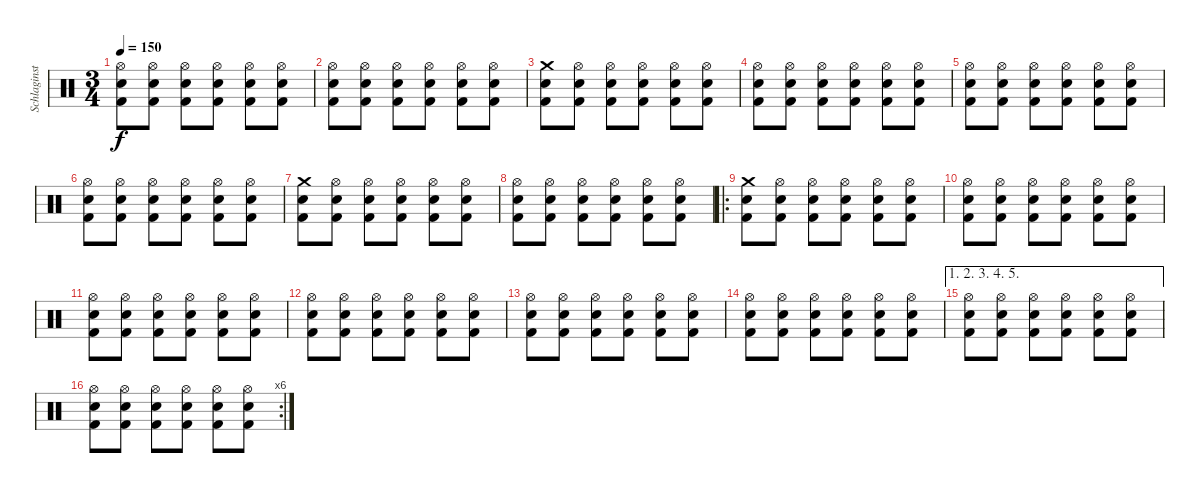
\track ("Schlaginstrumente - Auswahl" "Schlaginst") {instrument percussion}
\staff {score}
\articulation defaults
\ts (3 4)
\tempo 150
\clef neutral
\ks c
("Hi-Hat (open)" "Electric Snare (hit)" "Kick (hit) 2").8{dy f} ("Hi-Hat (open)" "Electric Snare (hit)" "Kick (hit) 2").8 ("Hi-Hat (open)" "Electric Snare (hit)" "Kick (hit) 2").8 ("Hi-Hat (open)" "Electric Snare (hit)" "Kick (hit) 2").8 ("Hi-Hat (open)" "Electric Snare (hit)" "Kick (hit) 2").8 ("Hi-Hat (open)" "Electric Snare (hit)" "Kick (hit) 2").8 |
("Hi-Hat (open)" "Electric Snare (hit)" "Kick (hit) 2").8 ("Hi-Hat (open)" "Electric Snare (hit)" "Kick (hit) 2").8 ("Hi-Hat (open)" "Electric Snare (hit)" "Kick (hit) 2").8 ("Hi-Hat (open)" "Electric Snare (hit)" "Kick (hit) 2").8 ("Hi-Hat (open)" "Electric Snare (hit)" "Kick (hit) 2").8 ("Hi-Hat (open)" "Electric Snare (hit)" "Kick (hit) 2").8 |
("Crash medium (hit)" "Electric Snare (hit)" "Kick (hit) 2").8 ("Hi-Hat (open)" "Electric Snare (hit)" "Kick (hit) 2").8 ("Hi-Hat (open)" "Electric Snare (hit)" "Kick (hit) 2").8 ("Hi-Hat (open)" "Electric Snare (hit)" "Kick (hit) 2").8 ("Hi-Hat (open)" "Electric Snare (hit)" "Kick (hit) 2").8 ("Hi-Hat (open)" "Electric Snare (hit)" "Kick (hit) 2").8 |
("Hi-Hat (open)" "Electric Snare (hit)" "Kick (hit) 2").8 ("Hi-Hat (open)" "Electric Snare (hit)" "Kick (hit) 2").8 ("Hi-Hat (open)" "Electric Snare (hit)" "Kick (hit) 2").8 ("Hi-Hat (open)" "Electric Snare (hit)" "Kick (hit) 2").8 ("Hi-Hat (open)" "Electric Snare (hit)" "Kick (hit) 2").8 ("Hi-Hat (open)" "Electric Snare (hit)" "Kick (hit) 2").8 |
("Hi-Hat (open)" "Electric Snare (hit)" "Kick (hit) 2").8 ("Hi-Hat (open)" "Electric Snare (hit)" "Kick (hit) 2").8 ("Hi-Hat (open)" "Electric Snare (hit)" "Kick (hit) 2").8 ("Hi-Hat (open)" "Electric Snare (hit)" "Kick (hit) 2").8 ("Hi-Hat (open)" "Electric Snare (hit)" "Kick (hit) 2").8 ("Hi-Hat (open)" "Electric Snare (hit)" "Kick (hit) 2").8 |
("Hi-Hat (open)" "Electric Snare (hit)" "Kick (hit) 2").8 ("Hi-Hat (open)" "Electric Snare (hit)" "Kick (hit) 2").8 ("Hi-Hat (open)" "Electric Snare (hit)" "Kick (hit) 2").8 ("Hi-Hat (open)" "Electric Snare (hit)" "Kick (hit) 2").8 ("Hi-Hat (open)" "Electric Snare (hit)" "Kick (hit) 2").8 ("Hi-Hat (open)" "Electric Snare (hit)" "Kick (hit) 2").8 |
("Crash medium (hit)" "Electric Snare (hit)" "Kick (hit) 2").8 ("Hi-Hat (open)" "Electric Snare (hit)" "Kick (hit) 2").8 ("Hi-Hat (open)" "Electric Snare (hit)" "Kick (hit) 2").8 ("Hi-Hat (open)" "Electric Snare (hit)" "Kick (hit) 2").8 ("Hi-Hat (open)" "Electric Snare (hit)" "Kick (hit) 2").8 ("Hi-Hat (open)" "Electric Snare (hit)" "Kick (hit) 2").8 |
("Hi-Hat (open)" "Electric Snare (hit)" "Kick (hit) 2").8 ("Hi-Hat (open)" "Electric Snare (hit)" "Kick (hit) 2").8 ("Hi-Hat (open)" "Electric Snare (hit)" "Kick (hit) 2").8 ("Hi-Hat (open)" "Electric Snare (hit)" "Kick (hit) 2").8 ("Hi-Hat (open)" "Electric Snare (hit)" "Kick (hit) 2").8 ("Hi-Hat (open)" "Electric Snare (hit)" "Kick (hit) 2").8 |
\ro
("Crash medium (hit)" "Electric Snare (hit)" "Kick (hit) 2").8 ("Hi-Hat (open)" "Electric Snare (hit)" "Kick (hit) 2").8 ("Hi-Hat (open)" "Electric Snare (hit)" "Kick (hit) 2").8 ("Hi-Hat (open)" "Electric Snare (hit)" "Kick (hit) 2").8 ("Hi-Hat (open)" "Electric Snare (hit)" "Kick (hit) 2").8 ("Hi-Hat (open)" "Electric Snare (hit)" "Kick (hit) 2").8 |
("Hi-Hat (open)" "Electric Snare (hit)" "Kick (hit) 2").8 ("Hi-Hat (open)" "Electric Snare (hit)" "Kick (hit) 2").8 ("Hi-Hat (open)" "Electric Snare (hit)" "Kick (hit) 2").8 ("Hi-Hat (open)" "Electric Snare (hit)" "Kick (hit) 2").8 ("Hi-Hat (open)" "Electric Snare (hit)" "Kick (hit) 2").8 ("Hi-Hat (open)" "Electric Snare (hit)" "Kick (hit) 2").8 |
("Hi-Hat (open)" "Electric Snare (hit)" "Kick (hit) 2").8 ("Hi-Hat (open)" "Electric Snare (hit)" "Kick (hit) 2").8 ("Hi-Hat (open)" "Electric Snare (hit)" "Kick (hit) 2").8 ("Hi-Hat (open)" "Electric Snare (hit)" "Kick (hit) 2").8 ("Hi-Hat (open)" "Electric Snare (hit)" "Kick (hit) 2").8 ("Hi-Hat (open)" "Electric Snare (hit)" "Kick (hit) 2").8 |
("Hi-Hat (open)" "Electric Snare (hit)" "Kick (hit) 2").8 ("Hi-Hat (open)" "Electric Snare (hit)" "Kick (hit) 2").8 ("Hi-Hat (open)" "Electric Snare (hit)" "Kick (hit) 2").8 ("Hi-Hat (open)" "Electric Snare (hit)" "Kick (hit) 2").8 ("Hi-Hat (open)" "Electric Snare (hit)" "Kick (hit) 2").8 ("Hi-Hat (open)" "Electric Snare (hit)" "Kick (hit) 2").8 |
("Hi-Hat (open)" "Electric Snare (hit)" "Kick (hit) 2").8 ("Hi-Hat (open)" "Electric Snare (hit)" "Kick (hit) 2").8 ("Hi-Hat (open)" "Electric Snare (hit)" "Kick (hit) 2").8 ("Hi-Hat (open)" "Electric Snare (hit)" "Kick (hit) 2").8 ("Hi-Hat (open)" "Electric Snare (hit)" "Kick (hit) 2").8 ("Hi-Hat (open)" "Electric Snare (hit)" "Kick (hit) 2").8 |
("Hi-Hat (open)" "Electric Snare (hit)" "Kick (hit) 2").8 ("Hi-Hat (open)" "Electric Snare (hit)" "Kick (hit) 2").8 ("Hi-Hat (open)" "Electric Snare (hit)" "Kick (hit) 2").8 ("Hi-Hat (open)" "Electric Snare (hit)" "Kick (hit) 2").8 ("Hi-Hat (open)" "Electric Snare (hit)" "Kick (hit) 2").8 ("Hi-Hat (open)" "Electric Snare (hit)" "Kick (hit) 2").8 |
\ae (1 2 3 4 5)
("Hi-Hat (open)" "Electric Snare (hit)" "Kick (hit) 2").8 ("Hi-Hat (open)" "Electric Snare (hit)" "Kick (hit) 2").8 ("Hi-Hat (open)" "Electric Snare (hit)" "Kick (hit) 2").8 ("Hi-Hat (open)" "Electric Snare (hit)" "Kick (hit) 2").8 ("Hi-Hat (open)" "Electric Snare (hit)" "Kick (hit) 2").8 ("Hi-Hat (open)" "Electric Snare (hit)" "Kick (hit) 2").8 |
\rc 6
("Hi-Hat (open)" "Electric Snare (hit)" "Kick (hit) 2").8 ("Hi-Hat (open)" "Electric Snare (hit)" "Kick (hit) 2").8 ("Hi-Hat (open)" "Electric Snare (hit)" "Kick (hit) 2").8 ("Hi-Hat (open)" "Electric Snare (hit)" "Kick (hit) 2").8 ("Hi-Hat (open)" "Electric Snare (hit)" "Kick (hit) 2").8 ("Hi-Hat (open)" "Electric Snare (hit)" "Kick (hit) 2").8
